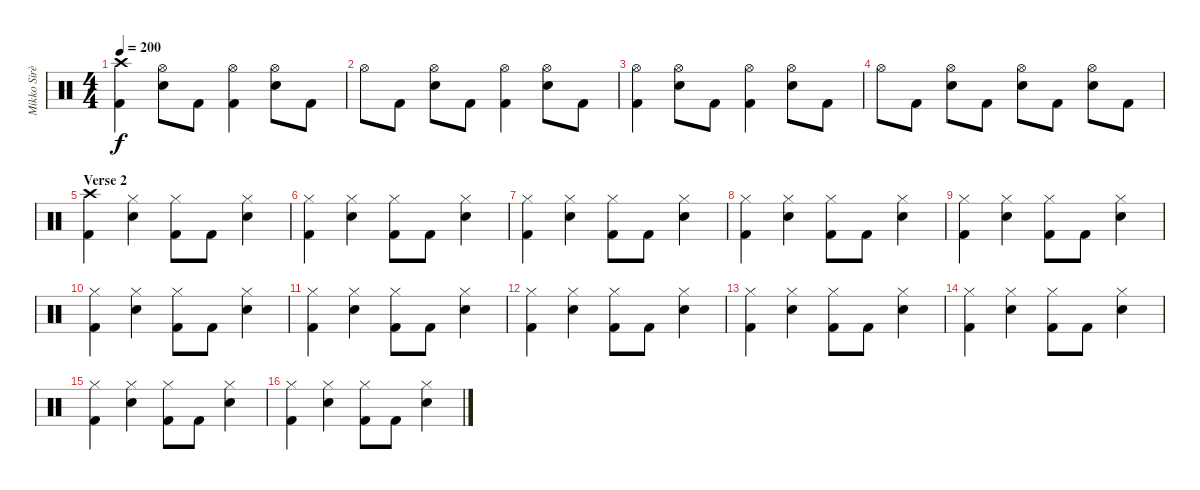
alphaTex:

\track ("Mikko Sirèn" "Mikko Sirè") {instrument percussion}
\staff {score}
\articulation defaults
\ts (4 4)
\tempo 200
\clef neutral
\ks c
("Crash high (hit)" "Kick (hit) 2").4{dy f} ("Hi-Hat (open)" "Electric Snare (hit)").8 "Kick (hit) 2".8 ("Hi-Hat (open)" "Kick (hit) 2").4 ("Hi-Hat (open)" "Electric Snare (hit)").8 "Kick (hit) 2".8 |
"Hi-Hat (open)".8 "Kick (hit) 2".8 ("Hi-Hat (open)" "Electric Snare (hit)").8 "Kick (hit) 2".8 ("Hi-Hat (open)" "Kick (hit) 2").4 ("Hi-Hat (open)" "Electric Snare (hit)").8 "Kick (hit) 2".8 |
("Hi-Hat (open)" "Kick (hit) 2").4 ("Hi-Hat (open)" "Electric Snare (hit)").8 "Kick (hit) 2".8 ("Hi-Hat (open)" "Kick (hit) 2").4 ("Hi-Hat (open)" "Electric Snare (hit)").8 "Kick (hit) 2".8 |
"Hi-Hat (open)".8 "Kick (hit) 2".8 ("Hi-Hat (open)" "Electric Snare (hit)").8 "Kick (hit) 2".8 ("Hi-Hat (open)" "Electric Snare (hit)").8 "Kick (hit) 2".8 ("Hi-Hat (open)" "Electric Snare (hit)").8 "Kick (hit) 2".8 |
\section ("" "Verse 2")
("Crash high (hit)" "Kick (hit) 2").4 ("Hi-Hat (closed)" "Electric Snare (hit)").4 ("Hi-Hat (closed)" "Kick (hit) 2").8 "Kick (hit) 2".8 ("Hi-Hat (closed)" "Electric Snare (hit)").4 |
("Hi-Hat (closed)" "Kick (hit) 2").4 ("Hi-Hat (closed)" "Electric Snare (hit)").4 ("Hi-Hat (closed)" "Kick (hit) 2").8 "Kick (hit) 2".8 ("Hi-Hat (closed)" "Electric Snare (hit)").4 |
("Hi-Hat (closed)" "Kick (hit) 2").4 ("Hi-Hat (closed)" "Electric Snare (hit)").4 ("Hi-Hat (closed)" "Kick (hit) 2").8 "Kick (hit) 2".8 ("Hi-Hat (closed)" "Electric Snare (hit)").4 |
("Hi-Hat (closed)" "Kick (hit) 2").4 ("Hi-Hat (closed)" "Electric Snare (hit)").4 ("Hi-Hat (closed)" "Kick (hit) 2").8 "Kick (hit) 2".8 ("Hi-Hat (closed)" "Electric Snare (hit)").4 |
("Hi-Hat (closed)" "Kick (hit) 2").4 ("Hi-Hat (closed)" "Electric Snare (hit)").4 ("Hi-Hat (closed)" "Kick (hit) 2").8 "Kick (hit) 2".8 ("Hi-Hat (closed)" "Electric Snare (hit)").4 |
("Hi-Hat (closed)" "Kick (hit) 2").4 ("Hi-Hat (closed)" "Electric Snare (hit)").4 ("Hi-Hat (closed)" "Kick (hit) 2").8 "Kick (hit) 2".8 ("Hi-Hat (closed)" "Electric Snare (hit)").4 |
("Hi-Hat (closed)" "Kick (hit) 2").4 ("Hi-Hat (closed)" "Electric Snare (hit)").4 ("Hi-Hat (closed)" "Kick (hit) 2").8 "Kick (hit) 2".8 ("Hi-Hat (closed)" "Electric Snare (hit)").4 |
("Hi-Hat (closed)" "Kick (hit) 2").4 ("Hi-Hat (closed)" "Electric Snare (hit)").4 ("Hi-Hat (closed)" "Kick (hit) 2").8 "Kick (hit) 2".8 ("Hi-Hat (closed)" "Electric Snare (hit)").4 |
("Hi-Hat (closed)" "Kick (hit) 2").4 ("Hi-Hat (closed)" "Electric Snare (hit)").4 ("Hi-Hat (closed)" "Kick (hit) 2").8 "Kick (hit) 2".8 ("Hi-Hat (closed)" "Electric Snare (hit)").4 |
("Hi-Hat (closed)" "Kick (hit) 2").4 ("Hi-Hat (closed)" "Electric Snare (hit)").4 ("Hi-Hat (closed)" "Kick (hit) 2").8 "Kick (hit) 2".8 ("Hi-Hat (closed)" "Electric Snare (hit)").4 |
("Hi-Hat (closed)" "Kick (hit) 2").4 ("Hi-Hat (closed)" "Electric Snare (hit)").4 ("Hi-Hat (closed)" "Kick (hit) 2").8 "Kick (hit) 2".8 ("Hi-Hat (closed)" "Electric Snare (hit)").4 |
("Hi-Hat (closed)" "Kick (hit) 2").4 ("Hi-Hat (closed)" "Electric Snare (hit)").4 ("Hi-Hat (closed)" "Kick (hit) 2").8 "Kick (hit) 2".8 ("Hi-Hat (closed)" "Electric Snare (hit)").4
